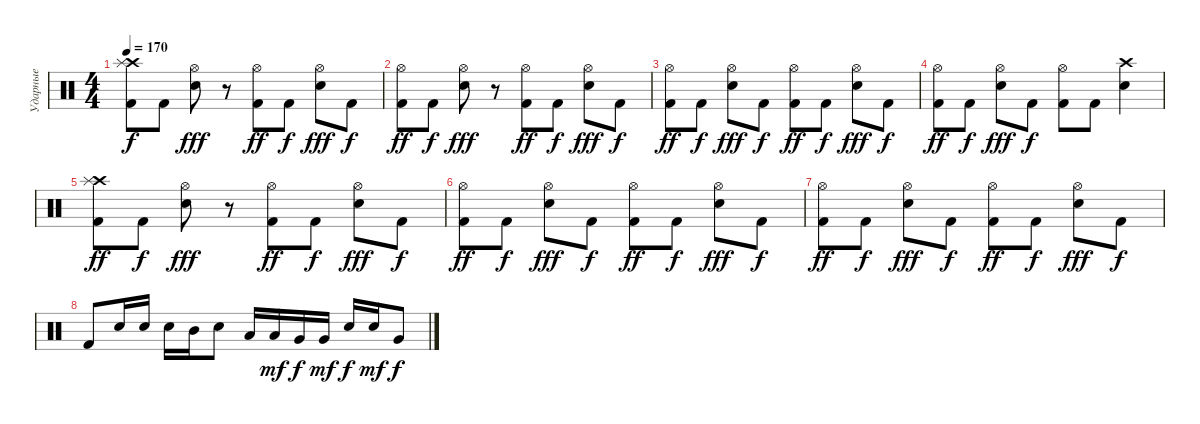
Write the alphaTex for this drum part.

\track ("Ударные" "Ударные") {instrument percussion}
\staff {score}
\articulation defaults
\ts (4 4)
\tempo 170
\clef neutral
\ks c
("Crash high (hit)" "Splash (hit)" "Kick (hit) 2").8{dy f} "Kick (hit) 2".8 ("Hi-Hat (open)" "Electric Snare (hit)").8{dy fff} r.8 ("Hi-Hat (open)" "Kick (hit) 2").8{dy ff} "Kick (hit) 2".8{dy f} ("Hi-Hat (open)" "Electric Snare (hit)").8{dy fff} "Kick (hit) 2".8{dy f} |
("Hi-Hat (open)" "Kick (hit) 2").8{dy ff} "Kick (hit) 2".8{dy f} ("Hi-Hat (open)" "Electric Snare (hit)").8{dy fff} r.8 ("Hi-Hat (open)" "Kick (hit) 2").8{dy ff} "Kick (hit) 2".8{dy f} ("Hi-Hat (open)" "Electric Snare (hit)").8{dy fff} "Kick (hit) 2".8{dy f} |
("Hi-Hat (open)" "Kick (hit) 2").8{dy ff} "Kick (hit) 2".8{dy f} ("Hi-Hat (open)" "Electric Snare (hit)").8{dy fff} "Kick (hit) 2".8{dy f} ("Hi-Hat (open)" "Kick (hit) 2").8{dy ff} "Kick (hit) 2".8{dy f} ("Hi-Hat (open)" "Electric Snare (hit)").8{dy fff} "Kick (hit) 2".8{dy f} |
("Hi-Hat (open)" "Kick (hit) 2").8{dy ff} "Kick (hit) 2".8{dy f} ("Hi-Hat (open)" "Electric Snare (hit)").8{dy fff} "Kick (hit) 2".8{dy f} ("Hi-Hat (open)" "Kick (hit) 2").8 "Kick (hit) 2".8 ("Crash high (hit)" "Electric Snare (hit)").4 |
("Crash high (hit)" "Splash (hit)" "Kick (hit) 2").8{dy ff} "Kick (hit) 2".8{dy f} ("Hi-Hat (open)" "Electric Snare (hit)").8{dy fff} r.8 ("Hi-Hat (open)" "Kick (hit) 2").8{dy ff} "Kick (hit) 2".8{dy f} ("Hi-Hat (open)" "Electric Snare (hit)").8{dy fff} "Kick (hit) 2".8{dy f} |
("Hi-Hat (open)" "Kick (hit) 2").8{dy ff} "Kick (hit) 2".8{dy f} ("Hi-Hat (open)" "Electric Snare (hit)").8{dy fff} "Kick (hit) 2".8{dy f} ("Hi-Hat (open)" "Kick (hit) 2").8{dy ff} "Kick (hit) 2".8{dy f} ("Hi-Hat (open)" "Electric Snare (hit)").8{dy fff} "Kick (hit) 2".8{dy f} |
("Hi-Hat (open)" "Kick (hit) 2").8{dy ff} "Kick (hit) 2".8{dy f} ("Hi-Hat (open)" "Electric Snare (hit)").8{dy fff} "Kick (hit) 2".8{dy f} ("Hi-Hat (open)" "Kick (hit) 2").8{dy ff} "Kick (hit) 2".8{dy f} ("Hi-Hat (open)" "Electric Snare (hit)").8{dy fff} "Kick (hit) 2".8{dy f} |
"Kick (hit) 2".8 "Electric Snare (hit)".16 "Electric Snare (hit)".16 "Electric Snare (hit)".16 "Mid Tom (hit)".16 "Electric Snare (hit)".8 "Low Tom (hit)".16 "Low Tom (hit)".16{dy mf} "Very Low Tom (hit)".16{dy f} "Very Low Tom (hit)".16{dy mf} "Electric Snare (hit)".16{dy f} "Electric Snare (hit)".16{dy mf} "Very Low Tom (hit)".8{dy f}
